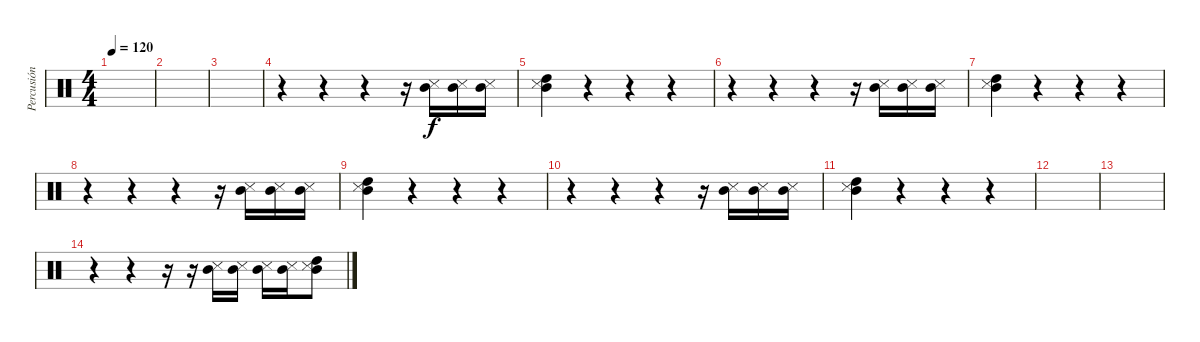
\track ("Percusión" "Percusión") {instrument percussion}
\staff {score}
\articulation defaults
\ts (4 4)
\tempo 120
\clef neutral
\ks c
|
|
|
r.4 r.4 r.4 r.16 ("Snare (side stick) 3" "Mid Tom (hit)").16 ("Snare (side stick) 3" "Mid Tom (hit)").16 ("Snare (side stick) 3" "Mid Tom (hit)").16 |
("Snare (side stick) 3" "Mid Tom (hit)" "High Tom (hit)").4 r.4 r.4 r.4 |
r.4 r.4 r.4 r.16 ("Snare (side stick) 3" "Mid Tom (hit)").16 ("Snare (side stick) 3" "Mid Tom (hit)").16 ("Snare (side stick) 3" "Mid Tom (hit)").16 |
("Snare (side stick) 3" "Mid Tom (hit)" "High Tom (hit)").4 r.4 r.4 r.4 |
r.4 r.4 r.4 r.16 ("Snare (side stick) 3" "Mid Tom (hit)").16 ("Snare (side stick) 3" "Mid Tom (hit)").16 ("Snare (side stick) 3" "Mid Tom (hit)").16 |
("Snare (side stick) 3" "Mid Tom (hit)" "High Tom (hit)").4 r.4 r.4 r.4 |
r.4 r.4 r.4 r.16 ("Snare (side stick) 3" "Mid Tom (hit)").16 ("Snare (side stick) 3" "Mid Tom (hit)").16 ("Snare (side stick) 3" "Mid Tom (hit)").16 |
("Snare (side stick) 3" "Mid Tom (hit)" "High Tom (hit)").4 r.4 r.4 r.4 |
|
|
r.4 r.4 r.16 r.16 ("Snare (side stick) 3" "Mid Tom (hit)").16 ("Snare (side stick) 3" "Mid Tom (hit)").16 ("Snare (side stick) 3" "Mid Tom (hit)").16 ("Snare (side stick) 3" "Mid Tom (hit)").16 ("Snare (side stick) 3" "Mid Tom (hit)" "High Tom (hit)").8
